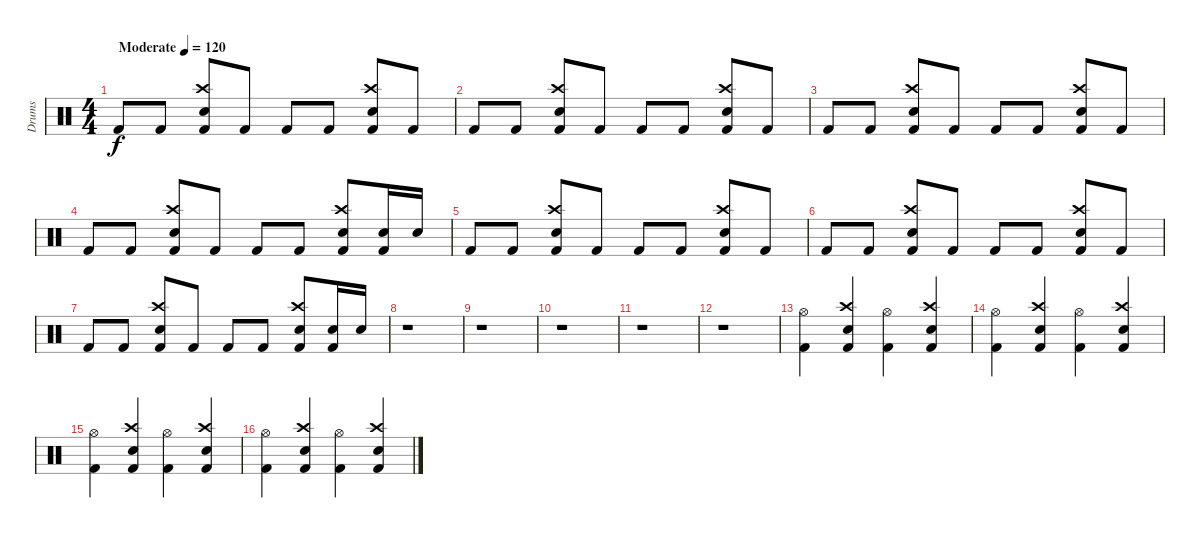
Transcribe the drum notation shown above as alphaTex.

\track ("Drums" "Drums") {instrument percussion}
\staff {score}
\articulation defaults
\ts (4 4)
\tempo (120 "Moderate")
\clef neutral
\ks c "Kick (hit) 2".8{dy f} "Kick (hit) 2".8
("Crash high (hit)" "Electric Snare (hit)" "Kick (hit) 2").8 "Kick (hit) 2".8 "Kick (hit) 2".8 "Kick (hit) 2".8 ("Crash high (hit)" "Electric Snare (hit)" "Kick (hit) 2").8 "Kick (hit) 2".8 |
"Kick (hit) 2".8 "Kick (hit) 2".8 ("Crash high (hit)" "Electric Snare (hit)" "Kick (hit) 2").8 "Kick (hit) 2".8 "Kick (hit) 2".8 "Kick (hit) 2".8 ("Crash high (hit)" "Electric Snare (hit)" "Kick (hit) 2").8 "Kick (hit) 2".8 |
"Kick (hit) 2".8 "Kick (hit) 2".8 ("Crash high (hit)" "Electric Snare (hit)" "Kick (hit) 2").8 "Kick (hit) 2".8 "Kick (hit) 2".8 "Kick (hit) 2".8 ("Crash high (hit)" "Electric Snare (hit)" "Kick (hit) 2").8 "Kick (hit) 2".8 |
"Kick (hit) 2".8 "Kick (hit) 2".8 ("Crash high (hit)" "Electric Snare (hit)" "Kick (hit) 2").8 "Kick (hit) 2".8 "Kick (hit) 2".8 "Kick (hit) 2".8 ("Crash high (hit)" "Electric Snare (hit)" "Kick (hit) 2").8 ("Electric Snare (hit)" "Kick (hit) 2").16 "Electric Snare (hit)".16 |
"Kick (hit) 2".8 "Kick (hit) 2".8 ("Crash high (hit)" "Electric Snare (hit)" "Kick (hit) 2").8 "Kick (hit) 2".8 "Kick (hit) 2".8 "Kick (hit) 2".8 ("Crash high (hit)" "Electric Snare (hit)" "Kick (hit) 2").8 "Kick (hit) 2".8 |
"Kick (hit) 2".8 "Kick (hit) 2".8 ("Crash high (hit)" "Electric Snare (hit)" "Kick (hit) 2").8 "Kick (hit) 2".8 "Kick (hit) 2".8 "Kick (hit) 2".8 ("Crash high (hit)" "Electric Snare (hit)" "Kick (hit) 2").8 "Kick (hit) 2".8 |
"Kick (hit) 2".8 "Kick (hit) 2".8 ("Crash high (hit)" "Electric Snare (hit)" "Kick (hit) 2").8 "Kick (hit) 2".8 "Kick (hit) 2".8 "Kick (hit) 2".8 ("Crash high (hit)" "Electric Snare (hit)" "Kick (hit) 2").8 ("Electric Snare (hit)" "Kick (hit) 2").16 "Electric Snare (hit)".16 |
r.1 |
r.1 |
r.1 |
r.1 |
r.1 |
("Hi-Hat (open)" "Kick (hit) 2").4 ("Electric Snare (hit)" "Crash high (hit)" "Kick (hit) 2").4 ("Hi-Hat (open)" "Kick (hit) 2").4 ("Electric Snare (hit)" "Crash high (hit)" "Kick (hit) 2").4 |
("Hi-Hat (open)" "Kick (hit) 2").4 ("Electric Snare (hit)" "Crash high (hit)" "Kick (hit) 2").4 ("Hi-Hat (open)" "Kick (hit) 2").4 ("Electric Snare (hit)" "Crash high (hit)" "Kick (hit) 2").4 |
("Hi-Hat (open)" "Kick (hit) 2").4 ("Electric Snare (hit)" "Crash high (hit)" "Kick (hit) 2").4 ("Hi-Hat (open)" "Kick (hit) 2").4 ("Electric Snare (hit)" "Crash high (hit)" "Kick (hit) 2").4 |
("Hi-Hat (open)" "Kick (hit) 2").4 ("Electric Snare (hit)" "Crash high (hit)" "Kick (hit) 2").4 ("Hi-Hat (open)" "Kick (hit) 2").4 ("Electric Snare (hit)" "Crash high (hit)" "Kick (hit) 2").4
